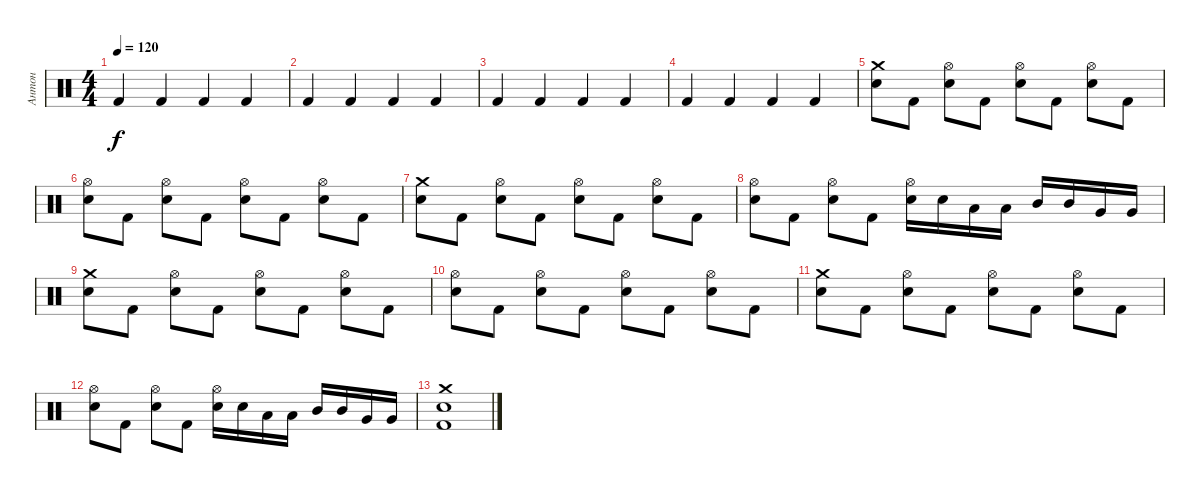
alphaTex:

\track ("Антон" "Антон") {instrument percussion}
\staff {score}
\articulation defaults
\ts (4 4)
\tempo 120
\clef neutral
\ks c "Kick (hit) 2".4{dy f} "Kick (hit) 2".4 "Kick (hit) 2".4 "Kick (hit) 2".4
|
"Kick (hit) 2".4 "Kick (hit) 2".4 "Kick (hit) 2".4 "Kick (hit) 2".4 |
"Kick (hit) 2".4 "Kick (hit) 2".4 "Kick (hit) 2".4 "Kick (hit) 2".4 |
"Kick (hit) 2".4 "Kick (hit) 2".4 "Kick (hit) 2".4 "Kick (hit) 2".4 |
("Crash medium (hit)" "Electric Snare (hit)").8 "Kick (hit) 2".8 ("Hi-Hat (open)" "Electric Snare (hit)").8 "Kick (hit) 2".8 ("Hi-Hat (open)" "Electric Snare (hit)").8 "Kick (hit) 2".8 ("Hi-Hat (open)" "Electric Snare (hit)").8 "Kick (hit) 2".8 |
("Hi-Hat (open)" "Electric Snare (hit)").8 "Kick (hit) 2".8 ("Hi-Hat (open)" "Electric Snare (hit)").8 "Kick (hit) 2".8 ("Hi-Hat (open)" "Electric Snare (hit)").8 "Kick (hit) 2".8 ("Hi-Hat (open)" "Electric Snare (hit)").8 "Kick (hit) 2".8 |
("Crash medium (hit)" "Electric Snare (hit)").8 "Kick (hit) 2".8 ("Hi-Hat (open)" "Electric Snare (hit)").8 "Kick (hit) 2".8 ("Hi-Hat (open)" "Electric Snare (hit)").8 "Kick (hit) 2".8 ("Hi-Hat (open)" "Electric Snare (hit)").8 "Kick (hit) 2".8 |
("Hi-Hat (open)" "Electric Snare (hit)").8 "Kick (hit) 2".8 ("Hi-Hat (open)" "Electric Snare (hit)").8 "Kick (hit) 2".8 ("Hi-Hat (open)" "Electric Snare (hit)").16 "Electric Snare (hit)".16 "Low Tom (hit)".16 "Low Tom (hit)".16 "Mid Tom (hit)".16 "Mid Tom (hit)".16 "Very Low Tom (hit)".16 "Very Low Tom (hit)".16 |
("Crash medium (hit)" "Electric Snare (hit)").8 "Kick (hit) 2".8 ("Hi-Hat (open)" "Electric Snare (hit)").8 "Kick (hit) 2".8 ("Hi-Hat (open)" "Electric Snare (hit)").8 "Kick (hit) 2".8 ("Hi-Hat (open)" "Electric Snare (hit)").8 "Kick (hit) 2".8 |
("Hi-Hat (open)" "Electric Snare (hit)").8 "Kick (hit) 2".8 ("Hi-Hat (open)" "Electric Snare (hit)").8 "Kick (hit) 2".8 ("Hi-Hat (open)" "Electric Snare (hit)").8 "Kick (hit) 2".8 ("Hi-Hat (open)" "Electric Snare (hit)").8 "Kick (hit) 2".8 |
("Crash medium (hit)" "Electric Snare (hit)").8 "Kick (hit) 2".8 ("Hi-Hat (open)" "Electric Snare (hit)").8 "Kick (hit) 2".8 ("Hi-Hat (open)" "Electric Snare (hit)").8 "Kick (hit) 2".8 ("Hi-Hat (open)" "Electric Snare (hit)").8 "Kick (hit) 2".8 |
("Hi-Hat (open)" "Electric Snare (hit)").8 "Kick (hit) 2".8 ("Hi-Hat (open)" "Electric Snare (hit)").8 "Kick (hit) 2".8 ("Hi-Hat (open)" "Electric Snare (hit)").16 "Electric Snare (hit)".16 "Low Tom (hit)".16 "Low Tom (hit)".16 "Mid Tom (hit)".16 "Mid Tom (hit)".16 "Very Low Tom (hit)".16 "Very Low Tom (hit)".16 |
("Crash medium (hit)" "Electric Snare (hit)" "Kick (hit) 2").1
